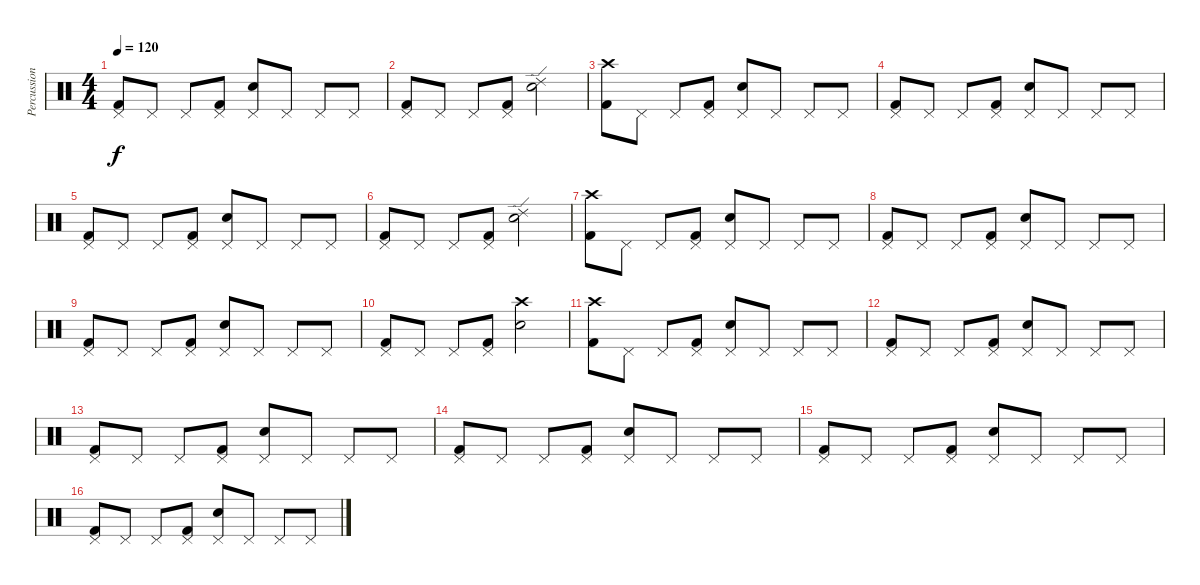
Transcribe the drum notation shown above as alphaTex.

\track ("Percussion" "Percussion") {instrument percussion}
\staff {score}
\articulation defaults
\ts (4 4)
\tempo 120
\clef neutral
\ks c
("Pedal Hi-Hat (hit)" "Kick (hit) 2").8{dy f} "Pedal Hi-Hat (hit)".8 "Pedal Hi-Hat (hit)".8 ("Pedal Hi-Hat (hit)" "Kick (hit) 2").8 ("Pedal Hi-Hat (hit)" "Electric Snare (hit)").8 "Pedal Hi-Hat (hit)".8 "Pedal Hi-Hat (hit)".8 "Pedal Hi-Hat (hit)".8 |
("Pedal Hi-Hat (hit)" "Kick (hit) 2").8 "Pedal Hi-Hat (hit)".8 "Pedal Hi-Hat (hit)".8 ("Pedal Hi-Hat (hit)" "Kick (hit) 2").8 ("Ride (edge) 2" "Electric Snare (hit)").2 |
("Crash high (hit)" "Kick (hit) 2").8 "Pedal Hi-Hat (hit)".8 "Pedal Hi-Hat (hit)".8 ("Pedal Hi-Hat (hit)" "Kick (hit) 2").8 ("Pedal Hi-Hat (hit)" "Electric Snare (hit)").8 "Pedal Hi-Hat (hit)".8 "Pedal Hi-Hat (hit)".8 "Pedal Hi-Hat (hit)".8 |
("Pedal Hi-Hat (hit)" "Kick (hit) 2").8 "Pedal Hi-Hat (hit)".8 "Pedal Hi-Hat (hit)".8 ("Pedal Hi-Hat (hit)" "Kick (hit) 2").8 ("Pedal Hi-Hat (hit)" "Electric Snare (hit)").8 "Pedal Hi-Hat (hit)".8 "Pedal Hi-Hat (hit)".8 "Pedal Hi-Hat (hit)".8 |
("Pedal Hi-Hat (hit)" "Kick (hit) 2").8 "Pedal Hi-Hat (hit)".8 "Pedal Hi-Hat (hit)".8 ("Pedal Hi-Hat (hit)" "Kick (hit) 2").8 ("Pedal Hi-Hat (hit)" "Electric Snare (hit)").8 "Pedal Hi-Hat (hit)".8 "Pedal Hi-Hat (hit)".8 "Pedal Hi-Hat (hit)".8 |
("Pedal Hi-Hat (hit)" "Kick (hit) 2").8 "Pedal Hi-Hat (hit)".8 "Pedal Hi-Hat (hit)".8 ("Pedal Hi-Hat (hit)" "Kick (hit) 2").8 ("Ride (edge) 2" "Electric Snare (hit)").2 |
("Crash high (hit)" "Kick (hit) 2").8 "Pedal Hi-Hat (hit)".8 "Pedal Hi-Hat (hit)".8 ("Pedal Hi-Hat (hit)" "Kick (hit) 2").8 ("Pedal Hi-Hat (hit)" "Electric Snare (hit)").8 "Pedal Hi-Hat (hit)".8 "Pedal Hi-Hat (hit)".8 "Pedal Hi-Hat (hit)".8 |
("Pedal Hi-Hat (hit)" "Kick (hit) 2").8 "Pedal Hi-Hat (hit)".8 "Pedal Hi-Hat (hit)".8 ("Pedal Hi-Hat (hit)" "Kick (hit) 2").8 ("Pedal Hi-Hat (hit)" "Electric Snare (hit)").8 "Pedal Hi-Hat (hit)".8 "Pedal Hi-Hat (hit)".8 "Pedal Hi-Hat (hit)".8 |
("Pedal Hi-Hat (hit)" "Kick (hit) 2").8 "Pedal Hi-Hat (hit)".8 "Pedal Hi-Hat (hit)".8 ("Pedal Hi-Hat (hit)" "Kick (hit) 2").8 ("Pedal Hi-Hat (hit)" "Electric Snare (hit)").8 "Pedal Hi-Hat (hit)".8 "Pedal Hi-Hat (hit)".8 "Pedal Hi-Hat (hit)".8 |
("Pedal Hi-Hat (hit)" "Kick (hit) 2").8 "Pedal Hi-Hat (hit)".8 "Pedal Hi-Hat (hit)".8 ("Pedal Hi-Hat (hit)" "Kick (hit) 2").8 ("Crash high (hit)" "Electric Snare (hit)").2 |
("Crash high (hit)" "Kick (hit) 2").8 "Pedal Hi-Hat (hit)".8 "Pedal Hi-Hat (hit)".8 ("Pedal Hi-Hat (hit)" "Kick (hit) 2").8 ("Pedal Hi-Hat (hit)" "Electric Snare (hit)").8 "Pedal Hi-Hat (hit)".8 "Pedal Hi-Hat (hit)".8 "Pedal Hi-Hat (hit)".8 |
("Pedal Hi-Hat (hit)" "Kick (hit) 2").8 "Pedal Hi-Hat (hit)".8 "Pedal Hi-Hat (hit)".8 ("Pedal Hi-Hat (hit)" "Kick (hit) 2").8 ("Pedal Hi-Hat (hit)" "Electric Snare (hit)").8 "Pedal Hi-Hat (hit)".8 "Pedal Hi-Hat (hit)".8 "Pedal Hi-Hat (hit)".8 |
("Pedal Hi-Hat (hit)" "Kick (hit) 2").8 "Pedal Hi-Hat (hit)".8 "Pedal Hi-Hat (hit)".8 ("Pedal Hi-Hat (hit)" "Kick (hit) 2").8 ("Pedal Hi-Hat (hit)" "Electric Snare (hit)").8 "Pedal Hi-Hat (hit)".8 "Pedal Hi-Hat (hit)".8 "Pedal Hi-Hat (hit)".8 |
("Pedal Hi-Hat (hit)" "Kick (hit) 2").8 "Pedal Hi-Hat (hit)".8 "Pedal Hi-Hat (hit)".8 ("Pedal Hi-Hat (hit)" "Kick (hit) 2").8 ("Pedal Hi-Hat (hit)" "Electric Snare (hit)").8 "Pedal Hi-Hat (hit)".8 "Pedal Hi-Hat (hit)".8 "Pedal Hi-Hat (hit)".8 |
("Pedal Hi-Hat (hit)" "Kick (hit) 2").8 "Pedal Hi-Hat (hit)".8 "Pedal Hi-Hat (hit)".8 ("Pedal Hi-Hat (hit)" "Kick (hit) 2").8 ("Pedal Hi-Hat (hit)" "Electric Snare (hit)").8 "Pedal Hi-Hat (hit)".8 "Pedal Hi-Hat (hit)".8 "Pedal Hi-Hat (hit)".8 |
("Pedal Hi-Hat (hit)" "Kick (hit) 2").8 "Pedal Hi-Hat (hit)".8 "Pedal Hi-Hat (hit)".8 ("Pedal Hi-Hat (hit)" "Kick (hit) 2").8 ("Pedal Hi-Hat (hit)" "Electric Snare (hit)").8 "Pedal Hi-Hat (hit)".8 "Pedal Hi-Hat (hit)".8 "Pedal Hi-Hat (hit)".8
